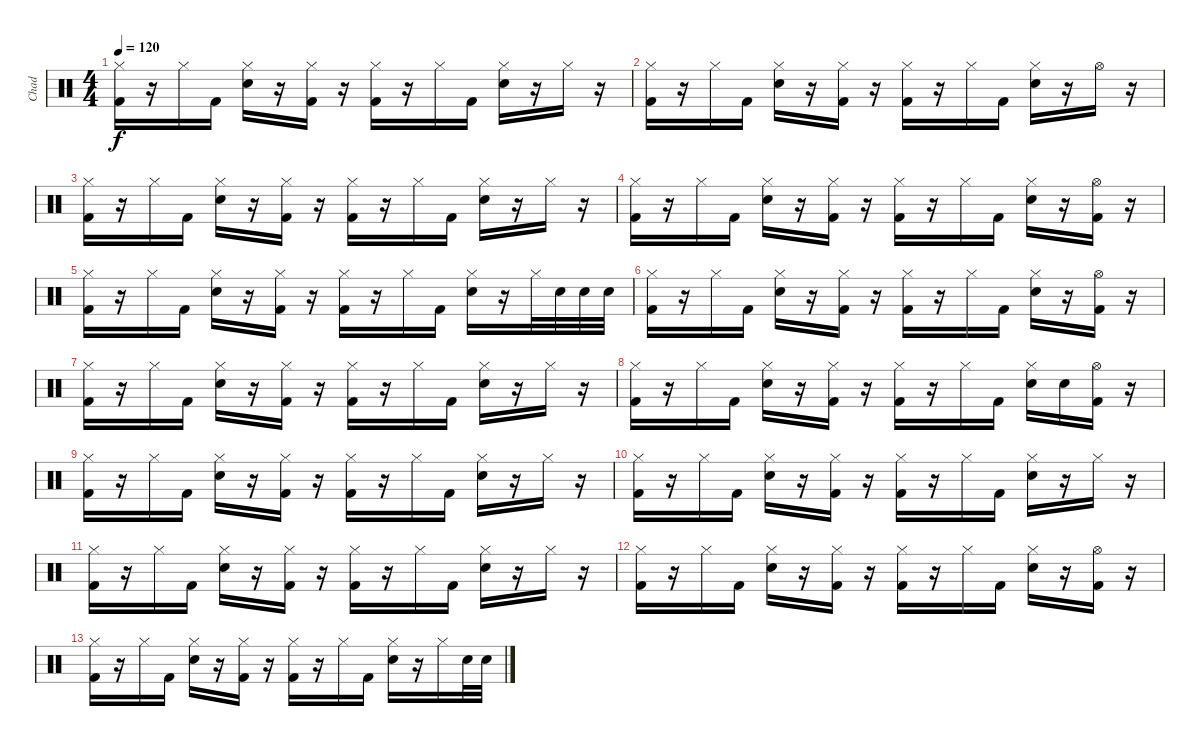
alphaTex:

\track ("Chad" "Chad") {instrument percussion}
\staff {score}
\articulation defaults
\ts (4 4)
\tempo 120
\clef neutral
\ks c
("Kick (hit) 2" "Hi-Hat (closed)").16{dy f} r.16 "Hi-Hat (closed)".16 "Kick (hit) 2".16 ("Electric Snare (hit)" "Hi-Hat (closed)").16 r.16 ("Kick (hit) 2" "Hi-Hat (closed)").16 r.16 ("Kick (hit) 2" "Hi-Hat (closed)").16 r.16 "Hi-Hat (closed)".16 "Kick (hit) 2".16 ("Electric Snare (hit)" "Hi-Hat (closed)").16 r.16 "Hi-Hat (closed)".16 r.16 |
("Hi-Hat (closed)" "Kick (hit) 2").16 r.16 "Hi-Hat (closed)".16 "Kick (hit) 2".16 ("Electric Snare (hit)" "Hi-Hat (closed)").16 r.16 ("Kick (hit) 2" "Hi-Hat (closed)").16 r.16 ("Kick (hit) 2" "Hi-Hat (closed)").16 r.16 "Hi-Hat (closed)".16 "Kick (hit) 2".16 ("Electric Snare (hit)" "Hi-Hat (closed)").16 r.16 "Hi-Hat (open)".16 r.16 |
("Kick (hit) 2" "Hi-Hat (closed)").16 r.16 "Hi-Hat (closed)".16 "Kick (hit) 2".16 ("Electric Snare (hit)" "Hi-Hat (closed)").16 r.16 ("Kick (hit) 2" "Hi-Hat (closed)").16 r.16 ("Kick (hit) 2" "Hi-Hat (closed)").16 r.16 "Hi-Hat (closed)".16 "Kick (hit) 2".16 ("Electric Snare (hit)" "Hi-Hat (closed)").16 r.16 "Hi-Hat (closed)".16 r.16 |
("Hi-Hat (closed)" "Kick (hit) 2").16 r.16 "Hi-Hat (closed)".16 "Kick (hit) 2".16 ("Electric Snare (hit)" "Hi-Hat (closed)").16 r.16 ("Kick (hit) 2" "Hi-Hat (closed)").16 r.16 ("Kick (hit) 2" "Hi-Hat (closed)").16 r.16 "Hi-Hat (closed)".16 "Kick (hit) 2".16 ("Electric Snare (hit)" "Hi-Hat (closed)").16 r.16 ("Kick (hit) 2" "Hi-Hat (open)").16 r.16 |
("Kick (hit) 2" "Hi-Hat (closed)").16 r.16 "Hi-Hat (closed)".16 "Kick (hit) 2".16 ("Electric Snare (hit)" "Hi-Hat (closed)").16 r.16 ("Kick (hit) 2" "Hi-Hat (closed)").16 r.16 ("Kick (hit) 2" "Hi-Hat (closed)").16 r.16 "Hi-Hat (closed)".16 "Kick (hit) 2".16 ("Electric Snare (hit)" "Hi-Hat (closed)").16 r.16 "Hi-Hat (closed)".32 "Electric Snare (hit)".32 "Electric Snare (hit)".32 "Electric Snare (hit)".32 |
("Hi-Hat (closed)" "Kick (hit) 2").16 r.16 "Hi-Hat (closed)".16 "Kick (hit) 2".16 ("Electric Snare (hit)" "Hi-Hat (closed)").16 r.16 ("Kick (hit) 2" "Hi-Hat (closed)").16 r.16 ("Kick (hit) 2" "Hi-Hat (closed)").16 r.16 "Hi-Hat (closed)".16 "Kick (hit) 2".16 ("Electric Snare (hit)" "Hi-Hat (closed)").16 r.16 ("Kick (hit) 2" "Hi-Hat (open)").16 r.16 |
("Kick (hit) 2" "Hi-Hat (closed)").16 r.16 "Hi-Hat (closed)".16 "Kick (hit) 2".16 ("Electric Snare (hit)" "Hi-Hat (closed)").16 r.16 ("Kick (hit) 2" "Hi-Hat (closed)").16 r.16 ("Kick (hit) 2" "Hi-Hat (closed)").16 r.16 "Hi-Hat (closed)".16 "Kick (hit) 2".16 ("Electric Snare (hit)" "Hi-Hat (closed)").16 r.16 "Hi-Hat (closed)".16 r.16 |
("Hi-Hat (closed)" "Kick (hit) 2").16 r.16 "Hi-Hat (closed)".16 "Kick (hit) 2".16 ("Electric Snare (hit)" "Hi-Hat (closed)").16 r.16 ("Kick (hit) 2" "Hi-Hat (closed)").16 r.16 ("Kick (hit) 2" "Hi-Hat (closed)").16 r.16 "Hi-Hat (closed)".16 "Kick (hit) 2".16 ("Electric Snare (hit)" "Hi-Hat (closed)").16 "Electric Snare (hit)".16 ("Kick (hit) 2" "Hi-Hat (open)").16 r.16 |
("Kick (hit) 2" "Hi-Hat (closed)").16 r.16 "Hi-Hat (closed)".16 "Kick (hit) 2".16 ("Electric Snare (hit)" "Hi-Hat (closed)").16 r.16 ("Kick (hit) 2" "Hi-Hat (closed)").16 r.16 ("Kick (hit) 2" "Hi-Hat (closed)").16 r.16 "Hi-Hat (closed)".16 "Kick (hit) 2".16 ("Electric Snare (hit)" "Hi-Hat (closed)").16 r.16 "Hi-Hat (closed)".16 r.16 |
("Hi-Hat (closed)" "Kick (hit) 2").16 r.16 "Hi-Hat (closed)".16 "Kick (hit) 2".16 ("Electric Snare (hit)" "Hi-Hat (closed)").16 r.16 ("Kick (hit) 2" "Hi-Hat (closed)").16 r.16 ("Kick (hit) 2" "Hi-Hat (closed)").16 r.16 "Hi-Hat (closed)".16 "Kick (hit) 2".16 ("Electric Snare (hit)" "Hi-Hat (closed)").16 r.16 "Hi-Hat (closed)".16 r.16 |
("Kick (hit) 2" "Hi-Hat (closed)").16 r.16 "Hi-Hat (closed)".16 "Kick (hit) 2".16 ("Electric Snare (hit)" "Hi-Hat (closed)").16 r.16 ("Kick (hit) 2" "Hi-Hat (closed)").16 r.16 ("Kick (hit) 2" "Hi-Hat (closed)").16 r.16 "Hi-Hat (closed)".16 "Kick (hit) 2".16 ("Electric Snare (hit)" "Hi-Hat (closed)").16 r.16 "Hi-Hat (closed)".16 r.16 |
("Hi-Hat (closed)" "Kick (hit) 2").16 r.16 "Hi-Hat (closed)".16 "Kick (hit) 2".16 ("Electric Snare (hit)" "Hi-Hat (closed)").16 r.16 ("Kick (hit) 2" "Hi-Hat (closed)").16 r.16 ("Kick (hit) 2" "Hi-Hat (closed)").16 r.16 "Hi-Hat (closed)".16 "Kick (hit) 2".16 ("Electric Snare (hit)" "Hi-Hat (closed)").16 r.16 ("Kick (hit) 2" "Hi-Hat (open)").16 r.16 |
("Kick (hit) 2" "Hi-Hat (closed)").16 r.16 "Hi-Hat (closed)".16 "Kick (hit) 2".16 ("Electric Snare (hit)" "Hi-Hat (closed)").16 r.16 ("Kick (hit) 2" "Hi-Hat (closed)").16 r.16 ("Kick (hit) 2" "Hi-Hat (closed)").16 r.16 "Hi-Hat (closed)".16 "Kick (hit) 2".16 ("Electric Snare (hit)" "Hi-Hat (closed)").16 r.16 "Hi-Hat (closed)".16 "Electric Snare (hit)".32 "Electric Snare (hit)".32
